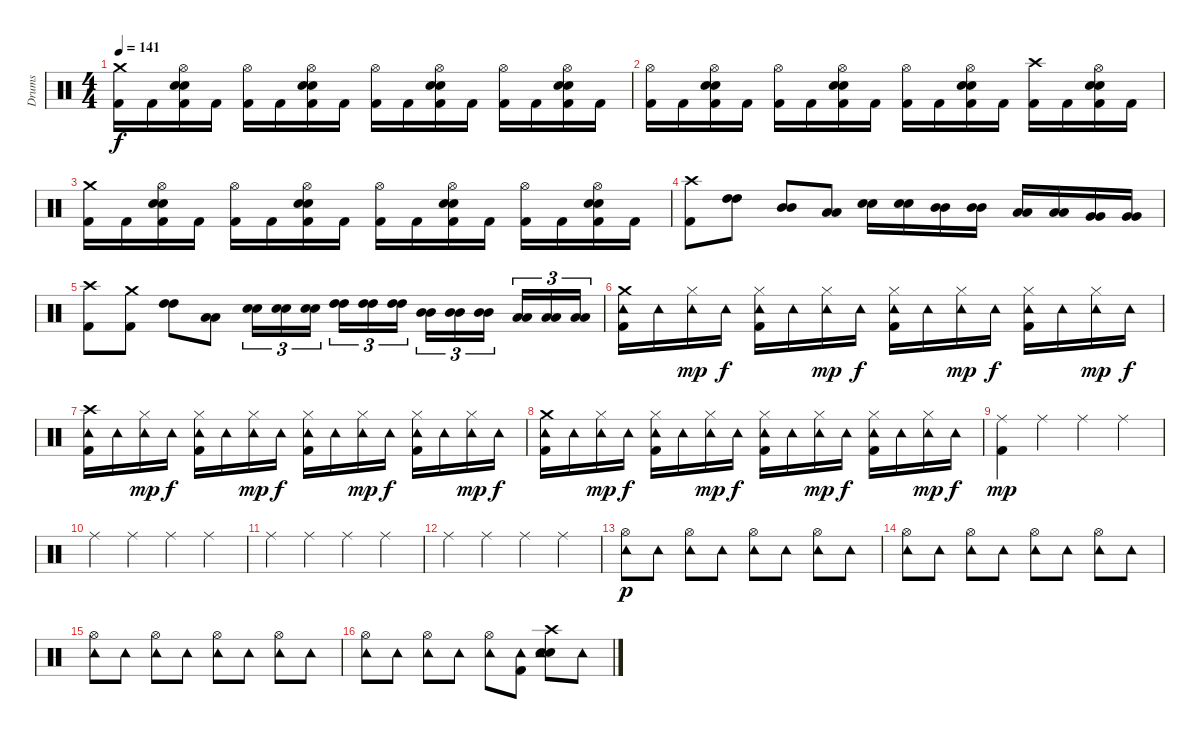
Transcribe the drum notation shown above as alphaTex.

\track ("Drums " "Drums ") {instrument percussion}
\staff {score}
\articulation defaults
\ts (4 4)
\tempo 141
\clef neutral
\ks c
("Crash medium (hit)" "Kick (hit) 2").16{dy f} "Kick (hit) 2".16 ("Hi-Hat (open)" "Snare (hit) 2" "Electric Snare (hit)" "Kick (hit) 2").16 "Kick (hit) 2".16 ("Hi-Hat (open)" "Kick (hit) 2").16 "Kick (hit) 2".16 ("Hi-Hat (open)" "Snare (hit) 2" "Electric Snare (hit)" "Kick (hit) 2").16 "Kick (hit) 2".16 ("Hi-Hat (open)" "Kick (hit) 2").16 "Kick (hit) 2".16 ("Hi-Hat (open)" "Snare (hit) 2" "Electric Snare (hit)" "Kick (hit) 2").16 "Kick (hit) 2".16 ("Hi-Hat (open)" "Kick (hit) 2").16 "Kick (hit) 2".16 ("Hi-Hat (open)" "Snare (hit) 2" "Electric Snare (hit)" "Kick (hit) 2").16 "Kick (hit) 2".16 |
("Hi-Hat (open)" "Kick (hit) 2").16 "Kick (hit) 2".16 ("Hi-Hat (open)" "Snare (hit) 2" "Electric Snare (hit)" "Kick (hit) 2").16 "Kick (hit) 2".16 ("Hi-Hat (open)" "Kick (hit) 2").16 "Kick (hit) 2".16 ("Hi-Hat (open)" "Snare (hit) 2" "Electric Snare (hit)" "Kick (hit) 2").16 "Kick (hit) 2".16 ("Hi-Hat (open)" "Kick (hit) 2").16 "Kick (hit) 2".16 ("Hi-Hat (open)" "Snare (hit) 2" "Electric Snare (hit)" "Kick (hit) 2").16 "Kick (hit) 2".16 ("Crash high (hit)" "Kick (hit) 2").16 "Kick (hit) 2".16 ("Hi-Hat (open)" "Snare (hit) 2" "Electric Snare (hit)" "Kick (hit) 2").16 "Kick (hit) 2".16 |
("Crash medium (hit)" "Kick (hit) 2").16 "Kick (hit) 2".16 ("Hi-Hat (open)" "Snare (hit) 2" "Electric Snare (hit)" "Kick (hit) 2").16 "Kick (hit) 2".16 ("Hi-Hat (open)" "Kick (hit) 2").16 "Kick (hit) 2".16 ("Hi-Hat (open)" "Snare (hit) 2" "Electric Snare (hit)" "Kick (hit) 2").16 "Kick (hit) 2".16 ("Hi-Hat (open)" "Kick (hit) 2").16 "Kick (hit) 2".16 ("Hi-Hat (open)" "Snare (hit) 2" "Electric Snare (hit)" "Kick (hit) 2").16 "Kick (hit) 2".16 ("Hi-Hat (open)" "Kick (hit) 2").16 "Kick (hit) 2".16 ("Hi-Hat (open)" "Snare (hit) 2" "Electric Snare (hit)" "Kick (hit) 2").16 "Kick (hit) 2".16 |
("Crash high (hit)" "Kick (hit) 2").8 ("High Tom (hit)" "High Tom (hit)").8 ("Mid Tom (hit)" "Mid Tom (hit)").8 ("Low Tom (hit)" "Low Tom (hit)").8 ("Snare (hit) 2" "Electric Snare (hit)").16 ("Snare (hit) 2" "Electric Snare (hit)").16 ("Mid Tom (hit)" "Mid Tom (hit)").16 ("Mid Tom (hit)" "Mid Tom (hit)").16 ("Low Tom (hit)" "Low Tom (hit)").16 ("Low Tom (hit)" "Low Tom (hit)").16 ("Very Low Tom (hit)" "Very Low Tom (hit)").16 ("Very Low Tom (hit)" "Very Low Tom (hit)").16 |
("Crash high (hit)" "Kick (hit) 2").8 ("Crash medium (hit)" "Kick (hit) 2").8 ("High Tom (hit)" "High Tom (hit)").8 ("Low Tom (hit)" "Low Tom (hit)").8 ("Snare (hit) 2" "Electric Snare (hit)").16{tu (3 2)} ("Snare (hit) 2" "Electric Snare (hit)").16{tu (3 2)} ("Snare (hit) 2" "Electric Snare (hit)").16{tu (3 2)} ("High Tom (hit)" "High Tom (hit)").16{tu (3 2)} ("High Tom (hit)" "High Tom (hit)").16{tu (3 2)} ("High Tom (hit)" "High Tom (hit)").16{tu (3 2)} ("Mid Tom (hit)" "Mid Tom (hit)").16{tu (3 2)} ("Mid Tom (hit)" "Mid Tom (hit)").16{tu (3 2)} ("Mid Tom (hit)" "Mid Tom (hit)").16{tu (3 2)} ("Low Tom (hit)" "Low Tom (hit)").16{tu (3 2)} ("Low Tom (hit)" "Low Tom (hit)").16{tu (3 2)} ("Low Tom (hit)" "Low Tom (hit)").16{tu (3 2)} |
("Crash medium (hit)" "Tambourine (hit)" "Kick (hit) 2").16 "Tambourine (hit)".16 ("Hi-Hat (closed)" "Tambourine (hit)").16{dy mp} "Tambourine (hit)".16{dy f} ("Hi-Hat (closed)" "Tambourine (hit)" "Kick (hit) 2").16 "Tambourine (hit)".16 ("Hi-Hat (closed)" "Tambourine (hit)").16{dy mp} "Tambourine (hit)".16{dy f} ("Hi-Hat (closed)" "Tambourine (hit)" "Kick (hit) 2").16 "Tambourine (hit)".16 ("Hi-Hat (closed)" "Tambourine (hit)").16{dy mp} "Tambourine (hit)".16{dy f} ("Hi-Hat (closed)" "Tambourine (hit)" "Kick (hit) 2").16 "Tambourine (hit)".16 ("Hi-Hat (closed)" "Tambourine (hit)").16{dy mp} "Tambourine (hit)".16{dy f} |
("Crash high (hit)" "Tambourine (hit)" "Kick (hit) 2").16 "Tambourine (hit)".16 ("Hi-Hat (closed)" "Tambourine (hit)").16{dy mp} "Tambourine (hit)".16{dy f} ("Hi-Hat (closed)" "Tambourine (hit)" "Kick (hit) 2").16 "Tambourine (hit)".16 ("Hi-Hat (closed)" "Tambourine (hit)").16{dy mp} "Tambourine (hit)".16{dy f} ("Hi-Hat (closed)" "Tambourine (hit)" "Kick (hit) 2").16 "Tambourine (hit)".16 ("Hi-Hat (closed)" "Tambourine (hit)").16{dy mp} "Tambourine (hit)".16{dy f} ("Hi-Hat (closed)" "Tambourine (hit)" "Kick (hit) 2").16 "Tambourine (hit)".16 ("Hi-Hat (closed)" "Tambourine (hit)").16{dy mp} "Tambourine (hit)".16{dy f} |
("Crash medium (hit)" "Tambourine (hit)" "Kick (hit) 2").16 "Tambourine (hit)".16 ("Hi-Hat (closed)" "Tambourine (hit)").16{dy mp} "Tambourine (hit)".16{dy f} ("Hi-Hat (closed)" "Tambourine (hit)" "Kick (hit) 2").16 "Tambourine (hit)".16 ("Hi-Hat (closed)" "Tambourine (hit)").16{dy mp} "Tambourine (hit)".16{dy f} ("Hi-Hat (closed)" "Tambourine (hit)" "Kick (hit) 2").16 "Tambourine (hit)".16 ("Hi-Hat (closed)" "Tambourine (hit)").16{dy mp} "Tambourine (hit)".16{dy f} ("Hi-Hat (closed)" "Tambourine (hit)" "Kick (hit) 2").16 "Tambourine (hit)".16 ("Hi-Hat (closed)" "Tambourine (hit)").16{dy mp} "Tambourine (hit)".16{dy f} |
("Ride (middle)" "Kick (hit) 2").4{dy mp} "Ride (middle)".4 "Ride (middle)".4 "Ride (middle)".4 |
"Ride (middle)".4 "Ride (middle)".4 "Ride (middle)".4 "Ride (middle)".4 |
"Ride (middle)".4 "Ride (middle)".4 "Ride (middle)".4 "Ride (middle)".4 |
"Ride (middle)".4 "Ride (middle)".4 "Ride (middle)".4 "Ride (middle)".4 |
("Hi-Hat (open)" "Tambourine (hit)").8{dy p} "Tambourine (hit)".8 ("Hi-Hat (open)" "Tambourine (hit)").8 "Tambourine (hit)".8 ("Hi-Hat (open)" "Tambourine (hit)").8 "Tambourine (hit)".8 ("Hi-Hat (open)" "Tambourine (hit)").8 "Tambourine (hit)".8 |
("Hi-Hat (open)" "Tambourine (hit)").8 "Tambourine (hit)".8 ("Hi-Hat (open)" "Tambourine (hit)").8 "Tambourine (hit)".8 ("Hi-Hat (open)" "Tambourine (hit)").8 "Tambourine (hit)".8 ("Hi-Hat (open)" "Tambourine (hit)").8 "Tambourine (hit)".8 |
("Hi-Hat (open)" "Tambourine (hit)").8 "Tambourine (hit)".8 ("Hi-Hat (open)" "Tambourine (hit)").8 "Tambourine (hit)".8 ("Hi-Hat (open)" "Tambourine (hit)").8 "Tambourine (hit)".8 ("Hi-Hat (open)" "Tambourine (hit)").8 "Tambourine (hit)".8 |
("Hi-Hat (open)" "Tambourine (hit)").8 "Tambourine (hit)".8 ("Hi-Hat (open)" "Tambourine (hit)").8 "Tambourine (hit)".8 ("Hi-Hat (open)" "Tambourine (hit)").8 ("Tambourine (hit)" "Kick (hit) 2").8 ("Crash high (hit)" "Snare (hit) 2" "Electric Snare (hit)" "Tambourine (hit)").8 "Tambourine (hit)".8
